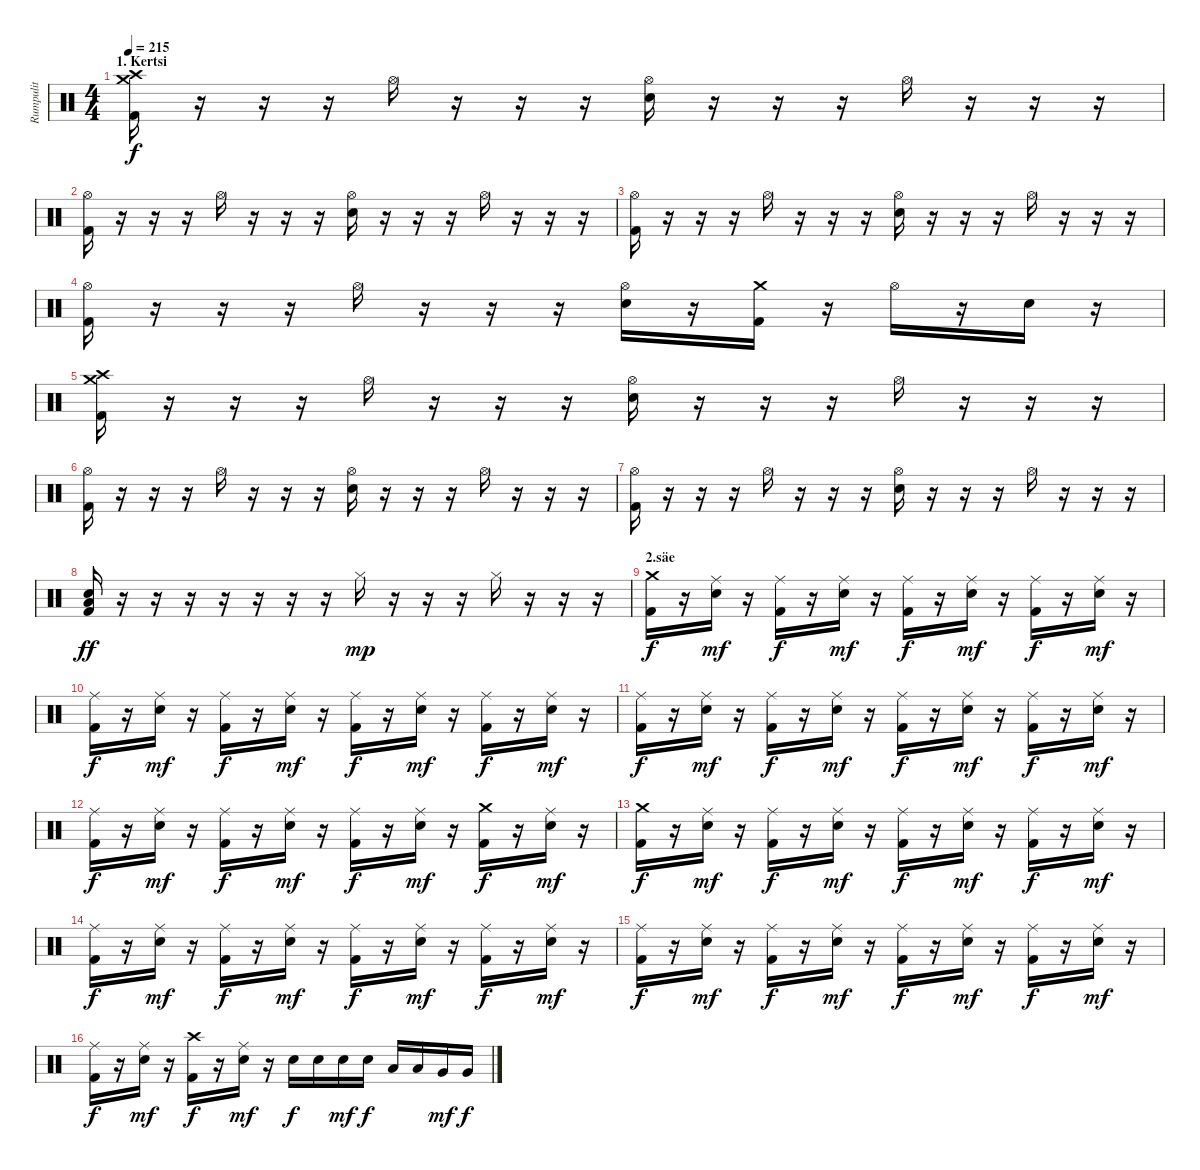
\track ("Rumpulit" "Rumpulit") {instrument percussion}
\staff {score}
\articulation defaults
\ts (4 4)
\section ("" "1. Kertsi")
\tempo 215
\clef neutral
\ks c
("Crash medium (hit)" "Kick (hit) 2" "Crash high (hit)").16{dy f} r.16 r.16 r.16 "Hi-Hat (open)".16 r.16 r.16 r.16 ("Hi-Hat (open)" "Electric Snare (hit)").16 r.16 r.16 r.16 "Hi-Hat (open)".16 r.16 r.16 r.16 |
("Hi-Hat (open)" "Kick (hit) 2").16 r.16 r.16 r.16 "Hi-Hat (open)".16 r.16 r.16 r.16 ("Hi-Hat (open)" "Electric Snare (hit)").16 r.16 r.16 r.16 "Hi-Hat (open)".16 r.16 r.16 r.16 |
("Hi-Hat (open)" "Kick (hit) 2").16 r.16 r.16 r.16 "Hi-Hat (open)".16 r.16 r.16 r.16 ("Hi-Hat (open)" "Electric Snare (hit)").16 r.16 r.16 r.16 "Hi-Hat (open)".16 r.16 r.16 r.16 |
("Hi-Hat (open)" "Kick (hit) 2").16 r.16 r.16 r.16 "Hi-Hat (open)".16 r.16 r.16 r.16 ("Hi-Hat (open)" "Electric Snare (hit)").16 r.16 ("Crash medium (hit)" "Kick (hit) 2").16 r.16 "Hi-Hat (open)".16 r.16 "Electric Snare (hit)".16 r.16 |
("Crash medium (hit)" "Kick (hit) 2" "Crash high (hit)").16 r.16 r.16 r.16 "Hi-Hat (open)".16 r.16 r.16 r.16 ("Hi-Hat (open)" "Electric Snare (hit)").16 r.16 r.16 r.16 "Hi-Hat (open)".16 r.16 r.16 r.16 |
("Hi-Hat (open)" "Kick (hit) 2").16 r.16 r.16 r.16 "Hi-Hat (open)".16 r.16 r.16 r.16 ("Hi-Hat (open)" "Electric Snare (hit)").16 r.16 r.16 r.16 "Hi-Hat (open)".16 r.16 r.16 r.16 |
("Hi-Hat (open)" "Kick (hit) 2").16 r.16 r.16 r.16 "Hi-Hat (open)".16 r.16 r.16 r.16 ("Hi-Hat (open)" "Electric Snare (hit)").16 r.16 r.16 r.16 "Hi-Hat (open)".16 r.16 r.16 r.16 |
("Electric Snare (hit)" "Kick (hit) 2" "Low Floor Tom (hit)").16{dy ff} r.16 r.16 r.16 r.16 r.16 r.16 r.16 "Hi-Hat (closed)".16{dy mp} r.16 r.16 r.16 "Hi-Hat (closed)".16 r.16 r.16 r.16 |
\section ("" "2.säe")
("Crash medium (hit)" "Kick (hit) 2").16{dy f} r.16 ("Ride (middle)" "Electric Snare (hit)").16{dy mf} r.16 ("Ride (middle)" "Kick (hit) 2").16{dy f} r.16 ("Ride (middle)" "Electric Snare (hit)").16{dy mf} r.16 ("Ride (middle)" "Kick (hit) 2").16{dy f} r.16 ("Ride (middle)" "Electric Snare (hit)").16{dy mf} r.16 ("Ride (middle)" "Kick (hit) 2").16{dy f} r.16 ("Ride (middle)" "Electric Snare (hit)").16{dy mf} r.16 |
("Ride (middle)" "Kick (hit) 2").16{dy f} r.16 ("Ride (middle)" "Electric Snare (hit)").16{dy mf} r.16 ("Ride (middle)" "Kick (hit) 2").16{dy f} r.16 ("Ride (middle)" "Electric Snare (hit)").16{dy mf} r.16 ("Ride (middle)" "Kick (hit) 2").16{dy f} r.16 ("Ride (middle)" "Electric Snare (hit)").16{dy mf} r.16 ("Ride (middle)" "Kick (hit) 2").16{dy f} r.16 ("Ride (middle)" "Electric Snare (hit)").16{dy mf} r.16 |
("Ride (middle)" "Kick (hit) 2").16{dy f} r.16 ("Ride (middle)" "Electric Snare (hit)").16{dy mf} r.16 ("Ride (middle)" "Kick (hit) 2").16{dy f} r.16 ("Ride (middle)" "Electric Snare (hit)").16{dy mf} r.16 ("Ride (middle)" "Kick (hit) 2").16{dy f} r.16 ("Ride (middle)" "Electric Snare (hit)").16{dy mf} r.16 ("Ride (middle)" "Kick (hit) 2").16{dy f} r.16 ("Ride (middle)" "Electric Snare (hit)").16{dy mf} r.16 |
("Ride (middle)" "Kick (hit) 2").16{dy f} r.16 ("Ride (middle)" "Electric Snare (hit)").16{dy mf} r.16 ("Ride (middle)" "Kick (hit) 2").16{dy f} r.16 ("Ride (middle)" "Electric Snare (hit)").16{dy mf} r.16 ("Ride (middle)" "Kick (hit) 2").16{dy f} r.16 ("Ride (middle)" "Electric Snare (hit)").16{dy mf} r.16 ("Crash medium (hit)" "Kick (hit) 2").16{dy f} r.16 ("Ride (middle)" "Electric Snare (hit)").16{dy mf} r.16 |
("Crash medium (hit)" "Kick (hit) 2").16{dy f} r.16 ("Ride (middle)" "Electric Snare (hit)").16{dy mf} r.16 ("Ride (middle)" "Kick (hit) 2").16{dy f} r.16 ("Ride (middle)" "Electric Snare (hit)").16{dy mf} r.16 ("Ride (middle)" "Kick (hit) 2").16{dy f} r.16 ("Ride (middle)" "Electric Snare (hit)").16{dy mf} r.16 ("Ride (middle)" "Kick (hit) 2").16{dy f} r.16 ("Ride (middle)" "Electric Snare (hit)").16{dy mf} r.16 |
("Ride (middle)" "Kick (hit) 2").16{dy f} r.16 ("Ride (middle)" "Electric Snare (hit)").16{dy mf} r.16 ("Ride (middle)" "Kick (hit) 2").16{dy f} r.16 ("Ride (middle)" "Electric Snare (hit)").16{dy mf} r.16 ("Ride (middle)" "Kick (hit) 2").16{dy f} r.16 ("Ride (middle)" "Electric Snare (hit)").16{dy mf} r.16 ("Ride (middle)" "Kick (hit) 2").16{dy f} r.16 ("Ride (middle)" "Electric Snare (hit)").16{dy mf} r.16 |
("Ride (middle)" "Kick (hit) 2").16{dy f} r.16 ("Ride (middle)" "Electric Snare (hit)").16{dy mf} r.16 ("Ride (middle)" "Kick (hit) 2").16{dy f} r.16 ("Ride (middle)" "Electric Snare (hit)").16{dy mf} r.16 ("Ride (middle)" "Kick (hit) 2").16{dy f} r.16 ("Ride (middle)" "Electric Snare (hit)").16{dy mf} r.16 ("Ride (middle)" "Kick (hit) 2").16{dy f} r.16 ("Ride (middle)" "Electric Snare (hit)").16{dy mf} r.16 |
("Ride (middle)" "Kick (hit) 2").16{dy f} r.16 ("Ride (middle)" "Electric Snare (hit)").16{dy mf} r.16 ("Crash high (hit)" "Kick (hit) 2").16{dy f} r.16 ("Ride (middle)" "Electric Snare (hit)").16{dy mf} r.16 "Electric Snare (hit)".16{dy f} "Electric Snare (hit)".16 "Electric Snare (hit)".16{dy mf} "Electric Snare (hit)".16{dy f} "Low Tom (hit)".16 "Low Tom (hit)".16 "Very Low Tom (hit)".16{dy mf} "Very Low Tom (hit)".16{dy f}
